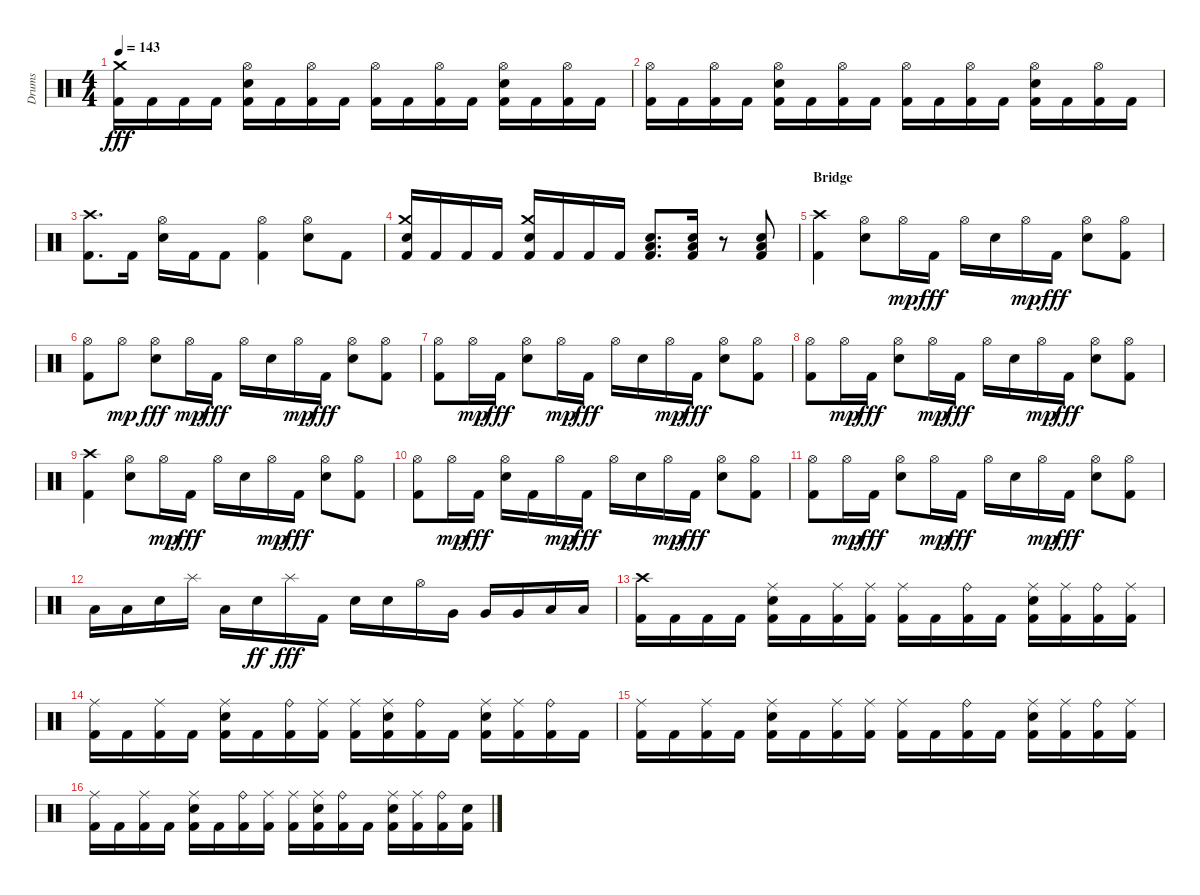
\track ("Drums" "Drums") {instrument percussion}
\staff {score}
\articulation defaults
\ts (4 4)
\tempo 143
\clef neutral
\ks aminor
("Kick (hit) 2" "Crash medium (hit)").16{dy fff} "Kick (hit) 2".16 "Kick (hit) 2".16 "Kick (hit) 2".16 ("Kick (hit) 2" "Snare (hit) 2" "Hi-Hat (open)").16 "Kick (hit) 2".16 ("Kick (hit) 2" "Hi-Hat (open)").16 "Kick (hit) 2".16 ("Kick (hit) 2" "Hi-Hat (open)").16 "Kick (hit) 2".16 ("Kick (hit) 2" "Hi-Hat (open)").16 "Kick (hit) 2".16 ("Kick (hit) 2" "Snare (hit) 2" "Hi-Hat (open)").16 "Kick (hit) 2".16 ("Kick (hit) 2" "Hi-Hat (open)").16 "Kick (hit) 2".16 |
("Kick (hit) 2" "Hi-Hat (open)").16 "Kick (hit) 2".16 ("Kick (hit) 2" "Hi-Hat (open)").16 "Kick (hit) 2".16 ("Kick (hit) 2" "Snare (hit) 2" "Hi-Hat (open)").16 "Kick (hit) 2".16 ("Kick (hit) 2" "Hi-Hat (open)").16 "Kick (hit) 2".16 ("Kick (hit) 2" "Hi-Hat (open)").16 "Kick (hit) 2".16 ("Kick (hit) 2" "Hi-Hat (open)").16 "Kick (hit) 2".16 ("Kick (hit) 2" "Snare (hit) 2" "Hi-Hat (open)").16 "Kick (hit) 2".16 ("Kick (hit) 2" "Hi-Hat (open)").16 "Kick (hit) 2".16 |
("Kick (hit) 2" "Crash high (hit)").8{d} "Kick (hit) 2".16 ("Snare (hit) 2" "Hi-Hat (open)").16 "Kick (hit) 2".16 "Kick (hit) 2".8 ("Kick (hit) 2" "Hi-Hat (open)").4 ("Snare (hit) 2" "Hi-Hat (open)").8 "Kick (hit) 2".8 |
("Kick (hit) 2" "Snare (hit) 2" "Crash medium (hit)").16 "Kick (hit) 2".16 "Kick (hit) 2".16 "Kick (hit) 2".16 ("Kick (hit) 2" "Snare (hit) 2" "Crash medium (hit)").16 "Kick (hit) 2".16 "Kick (hit) 2".16 "Kick (hit) 2".16 ("Kick (hit) 2" "Snare (hit) 2" "Low Floor Tom (hit)").8{d} ("Kick (hit) 2" "Snare (hit) 2" "Low Floor Tom (hit)").16 r.8 ("Kick (hit) 2" "Snare (hit) 2" "Low Floor Tom (hit)").8 |
\section ("" "Bridge")
("Kick (hit) 2" "Crash high (hit)").4 ("Snare (hit) 2" "Hi-Hat (open)").8 "Hi-Hat (open)".16{dy mp} "Kick (hit) 2".16{dy fff} "Hi-Hat (open)".16 "Snare (hit) 2".16 "Hi-Hat (open)".16{dy mp} "Kick (hit) 2".16{dy fff} ("Snare (hit) 2" "Hi-Hat (open)").8 ("Kick (hit) 2" "Hi-Hat (open)").8 |
("Kick (hit) 2" "Hi-Hat (open)").8 "Hi-Hat (open)".8{dy mp} ("Snare (hit) 2" "Hi-Hat (open)").8{dy fff} "Hi-Hat (open)".16{dy mp} "Kick (hit) 2".16{dy fff} "Hi-Hat (open)".16 "Snare (hit) 2".16 "Hi-Hat (open)".16{dy mp} "Kick (hit) 2".16{dy fff} ("Snare (hit) 2" "Hi-Hat (open)").8 ("Kick (hit) 2" "Hi-Hat (open)").8 |
("Kick (hit) 2" "Hi-Hat (open)").8 "Hi-Hat (open)".16{dy mp} "Kick (hit) 2".16{dy fff} ("Snare (hit) 2" "Hi-Hat (open)").8 "Hi-Hat (open)".16{dy mp} "Kick (hit) 2".16{dy fff} "Hi-Hat (open)".16 "Snare (hit) 2".16 "Hi-Hat (open)".16{dy mp} "Kick (hit) 2".16{dy fff} ("Snare (hit) 2" "Hi-Hat (open)").8 ("Kick (hit) 2" "Hi-Hat (open)").8 |
("Kick (hit) 2" "Hi-Hat (open)").8 "Hi-Hat (open)".16{dy mp} "Kick (hit) 2".16{dy fff} ("Snare (hit) 2" "Hi-Hat (open)").8 "Hi-Hat (open)".16{dy mp} "Kick (hit) 2".16{dy fff} "Hi-Hat (open)".16 "Snare (hit) 2".16 "Hi-Hat (open)".16{dy mp} "Kick (hit) 2".16{dy fff} ("Snare (hit) 2" "Hi-Hat (open)").8 ("Kick (hit) 2" "Hi-Hat (open)").8 |
("Kick (hit) 2" "Crash high (hit)").4 ("Snare (hit) 2" "Hi-Hat (open)").8 "Hi-Hat (open)".16{dy mp} "Kick (hit) 2".16{dy fff} "Hi-Hat (open)".16 "Snare (hit) 2".16 "Hi-Hat (open)".16{dy mp} "Kick (hit) 2".16{dy fff} ("Snare (hit) 2" "Hi-Hat (open)").8 ("Kick (hit) 2" "Hi-Hat (open)").8 |
("Kick (hit) 2" "Hi-Hat (open)").8 "Hi-Hat (open)".16{dy mp} "Kick (hit) 2".16{dy fff} ("Snare (hit) 2" "Hi-Hat (open)").16 "Kick (hit) 2".16 "Hi-Hat (open)".16{dy mp} "Kick (hit) 2".16{dy fff} "Hi-Hat (open)".16 "Snare (hit) 2".16 "Hi-Hat (open)".16{dy mp} "Kick (hit) 2".16{dy fff} ("Snare (hit) 2" "Hi-Hat (open)").8 ("Kick (hit) 2" "Hi-Hat (open)").8 |
("Kick (hit) 2" "Hi-Hat (open)").8 "Hi-Hat (open)".16{dy mp} "Kick (hit) 2".16{dy fff} ("Snare (hit) 2" "Hi-Hat (open)").8 "Hi-Hat (open)".16{dy mp} "Kick (hit) 2".16{dy fff} "Hi-Hat (open)".16 "Snare (hit) 2".16 "Hi-Hat (open)".16{dy mp} "Kick (hit) 2".16{dy fff} ("Snare (hit) 2" "Hi-Hat (open)").8 ("Kick (hit) 2" "Hi-Hat (open)").8 |
"Low Tom (hit)".16 "Low Tom (hit)".16 "Snare (hit) 2".16 "Splash (hit)".16 "Low Floor Tom (hit)".16 "Snare (hit) 2".16{dy ff} "Splash (hit)".16{dy fff} "Kick (hit) 2".16 "Snare (hit) 2".16 "Snare (hit) 2".16 "Hi-Hat (open)".16 "Very Low Tom (hit)".16 "Very Low Tom (hit)".16 "Very Low Tom (hit)".16 "Low Floor Tom (hit)".16 "Low Floor Tom (hit)".16 |
("Kick (hit) 2" "Crash high (hit)").16 "Kick (hit) 2".16 "Kick (hit) 2".16 "Kick (hit) 2".16 ("Kick (hit) 2" "Snare (hit) 2" "Ride (middle)").16 "Kick (hit) 2".16 ("Kick (hit) 2" "Ride (middle)").16 ("Kick (hit) 2" "Ride (middle)").16 ("Kick (hit) 2" "Ride (middle)").16 "Kick (hit) 2".16 ("Kick (hit) 2" "Ride (bell)").16 "Kick (hit) 2".16 ("Kick (hit) 2" "Snare (hit) 2" "Ride (middle)").16 ("Kick (hit) 2" "Ride (middle)").16 ("Kick (hit) 2" "Ride (bell)").16 ("Kick (hit) 2" "Ride (middle)").16 |
("Kick (hit) 2" "Ride (middle)").16 "Kick (hit) 2".16 ("Kick (hit) 2" "Ride (middle)").16 "Kick (hit) 2".16 ("Kick (hit) 2" "Snare (hit) 2" "Ride (middle)").16 "Kick (hit) 2".16 ("Kick (hit) 2" "Ride (bell)").16 ("Kick (hit) 2" "Ride (middle)").16 ("Kick (hit) 2" "Ride (middle)").16 ("Kick (hit) 2" "Snare (hit) 2" "Ride (middle)").16 ("Kick (hit) 2" "Ride (bell)").16 "Kick (hit) 2".16 ("Kick (hit) 2" "Snare (hit) 2" "Ride (middle)").16 ("Kick (hit) 2" "Ride (middle)").16 ("Kick (hit) 2" "Ride (bell)").16 "Kick (hit) 2".16 |
("Kick (hit) 2" "Ride (middle)").16 "Kick (hit) 2".16 ("Kick (hit) 2" "Ride (middle)").16 "Kick (hit) 2".16 ("Kick (hit) 2" "Snare (hit) 2" "Ride (middle)").16 "Kick (hit) 2".16 ("Kick (hit) 2" "Ride (middle)").16 ("Kick (hit) 2" "Ride (middle)").16 ("Kick (hit) 2" "Ride (middle)").16 "Kick (hit) 2".16 ("Kick (hit) 2" "Ride (bell)").16 "Kick (hit) 2".16 ("Kick (hit) 2" "Snare (hit) 2" "Ride (middle)").16 ("Kick (hit) 2" "Ride (middle)").16 ("Kick (hit) 2" "Ride (bell)").16 ("Kick (hit) 2" "Ride (middle)").16 |
("Kick (hit) 2" "Ride (middle)").16 "Kick (hit) 2".16 ("Kick (hit) 2" "Ride (middle)").16 "Kick (hit) 2".16 ("Kick (hit) 2" "Snare (hit) 2" "Ride (middle)").16 "Kick (hit) 2".16 ("Kick (hit) 2" "Ride (bell)").16 ("Kick (hit) 2" "Ride (middle)").16 ("Kick (hit) 2" "Ride (middle)").16 ("Kick (hit) 2" "Snare (hit) 2" "Ride (middle)").16 ("Kick (hit) 2" "Ride (bell)").16 "Kick (hit) 2".16 ("Kick (hit) 2" "Snare (hit) 2" "Ride (middle)").16 ("Kick (hit) 2" "Ride (middle)").16 ("Kick (hit) 2" "Ride (bell)").16 ("Kick (hit) 2" "Snare (hit) 2").16
